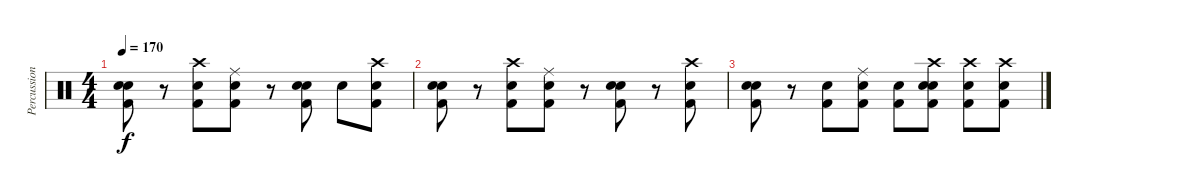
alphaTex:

\track ("Percussions" "Percussion") {instrument percussion}
\staff {score}
\articulation defaults
\ts (4 4)
\tempo 170
\clef neutral
\ks c
("Electric Snare (hit)" "Kick (hit) 2" "Snare (hit) 2").8{dy f} r.8 ("Electric Snare (hit)" "Kick (hit) 2" "Crash high (hit)").8 ("Ride (middle)" "Snare (hit) 2" "Kick (hit) 2").8 r.8 ("Electric Snare (hit)" "Kick (hit) 2" "Snare (hit) 2").8 "Snare (hit) 2".8 ("Snare (hit) 2" "Crash high (hit)" "Kick (hit) 2").8 |
("Electric Snare (hit)" "Kick (hit) 2" "Snare (hit) 2").8 r.8 ("Electric Snare (hit)" "Kick (hit) 2" "Crash high (hit)").8 ("Ride (middle)" "Snare (hit) 2" "Kick (hit) 2").8 r.8 ("Electric Snare (hit)" "Kick (hit) 2" "Snare (hit) 2").8 r.8 ("Snare (hit) 2" "Crash high (hit)" "Kick (hit) 2").8 |
("Electric Snare (hit)" "Kick (hit) 2" "Snare (hit) 2").8 r.8 ("Electric Snare (hit)" "Kick (hit) 2").8 ("Ride (middle)" "Snare (hit) 2" "Kick (hit) 2").8 ("Electric Snare (hit)" "Kick (hit) 2").8 ("Electric Snare (hit)" "Kick (hit) 2" "Snare (hit) 2" "Crash high (hit)").8 ("Electric Snare (hit)" "Kick (hit) 2" "Crash high (hit)").8 ("Snare (hit) 2" "Crash high (hit)" "Kick (hit) 2").8
